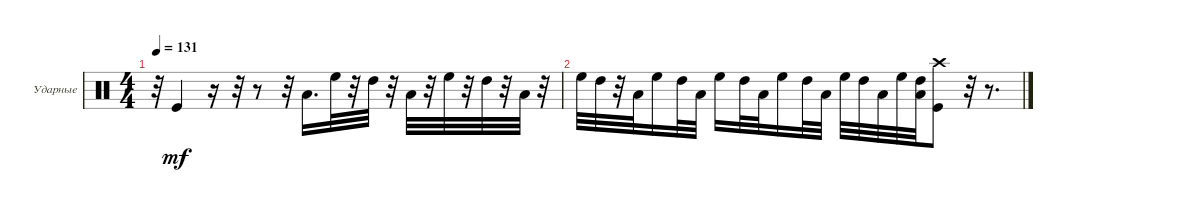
\bracketExtendMode groupsimilarinstruments
\firstSystemTrackNameOrientation horizontal
\otherSystemsTrackNameOrientation horizontal
\track ("Ударные" "Ударные") {instrument percussion}
\staff {score}
\articulation defaults
\ts (4 4)
\tempo 131
\clef neutral
\ks c
r.32{dy mf} "Kick (hit)".4 r.16 r.32 r.8 r.32 "Low Tom (hit)".16{d} "High Floor Tom (hit)".32 r.32 "High Tom (hit)".32 r.32 "Low Tom (hit)".32 r.32 "High Floor Tom (hit)".32 r.32 "High Tom (hit)".32 r.32 "Low Tom (hit)".32 r.32 |
"High Floor Tom (hit)".32 "High Tom (hit)".32 r.32 "Low Tom (hit)".32 "High Floor Tom (hit)".16 "High Tom (hit)".32 "Low Tom (hit)".32 "High Floor Tom (hit)".16 "High Tom (hit)".32 "Low Tom (hit)".32 "High Floor Tom (hit)".16 "High Tom (hit)".32 "Low Tom (hit)".32 "High Floor Tom (hit)".32 "High Tom (hit)".32 "Low Tom (hit)".32 "High Floor Tom (hit)".32 ("High Tom (hit)" "Low Tom (hit)").32 ("Crash high (hit)" "Kick (hit)").8 r.32 r.8{d}
